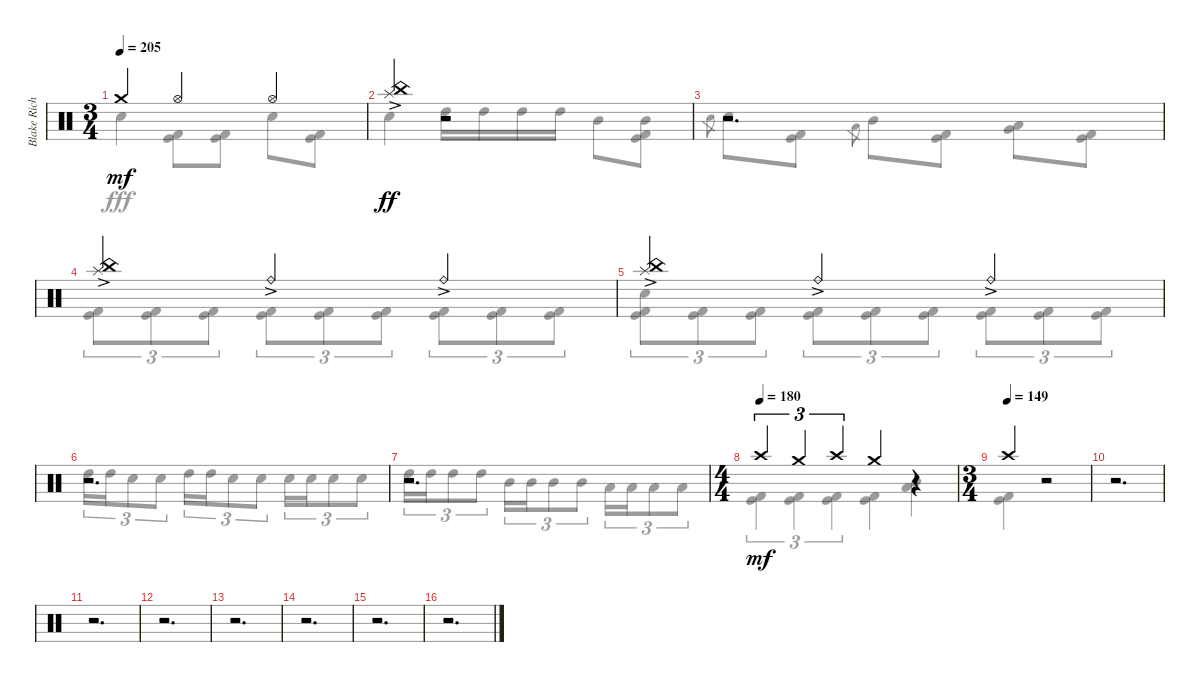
\track ("Blake Richardson Drums" "Blake Rich") {instrument percussion}
\staff {score}
\articulation defaults
\voice
\ts (3 4)
\tempo 205
\clef neutral
\ks c "Crash medium (hit)".4{dy mf} "Hi-Hat (open)".4 "Hi-Hat (open)".4
|
("Splash (hit)"{ac} "China (hit)").4{dy ff} r.2 |
r.2{d} |
("Splash (hit)"{ac} "China (hit)").4 "Ride (bell)"{ac}.4 "Ride (bell)"{ac}.4 |
("Splash (hit)"{ac} "China (hit)").4 "Ride (bell)"{ac}.4 "Ride (bell)"{ac}.4 |
r.2{d} |
r.2{d} |
\ts (4 4)
\tempo (180)
"Crash high (hit)".4{tu (3 2) dy mf} "Crash medium (hit)".4{tu (3 2)} "Crash high (hit)".4{tu (3 2)} "Crash medium (hit)".4 r.4 |
\ts (3 4)
\tempo (149)
"Crash high (hit)".4 r.2 |
r.2{d} |
r.2{d} |
r.2{d} |
r.2{d} |
r.2{d} |
r.2{d} |
r.2{d}
\voice
\clef neutral
\ottava regular
\simile none
\ks c "Electric Snare (hit)".4{dy fff}
("Kick (hit)" "Kick (hit) 2").8 ("Kick (hit)" "Kick (hit) 2").8 "Electric Snare (hit)".8 ("Kick (hit)" "Kick (hit) 2").8 |
"Electric Snare (hit)".4 "High Tom (hit)".16 "High Tom (hit)".16 "High Tom (hit)".16 "High Tom (hit)".16 "Mid Tom (hit)".8 ("Mid Tom (hit)" "Kick (hit)" "Kick (hit) 2").8 |
"Electric Snare (hit)".8{gr} "Electric Snare (hit)".8 ("Kick (hit)" "Kick (hit) 2").8 "Low Tom (hit)".8{gr} "Mid Tom (hit)".8 ("Kick (hit)" "Kick (hit) 2").8 ("Low Tom (hit)" "Very Low Tom (hit)").8 ("Kick (hit)" "Kick (hit) 2").8 |
("Kick (hit)" "Kick (hit) 2").8{tu (3 2)} ("Kick (hit)" "Kick (hit) 2").8{tu (3 2)} ("Kick (hit)" "Kick (hit) 2").8{tu (3 2)} ("Kick (hit)" "Kick (hit) 2").8{tu (3 2)} ("Kick (hit)" "Kick (hit) 2").8{tu (3 2)} ("Kick (hit)" "Kick (hit) 2").8{tu (3 2)} ("Kick (hit)" "Kick (hit) 2").8{tu (3 2)} ("Kick (hit)" "Kick (hit) 2").8{tu (3 2)} ("Kick (hit)" "Kick (hit) 2").8{tu (3 2)} |
("Electric Snare (hit)" "Kick (hit)" "Kick (hit) 2").8{tu (3 2)} ("Kick (hit)" "Kick (hit) 2").8{tu (3 2)} ("Kick (hit)" "Kick (hit) 2").8{tu (3 2)} ("Kick (hit)" "Kick (hit) 2").8{tu (3 2)} ("Kick (hit)" "Kick (hit) 2").8{tu (3 2)} ("Kick (hit)" "Kick (hit) 2").8{tu (3 2)} ("Kick (hit)" "Kick (hit) 2").8{tu (3 2)} ("Kick (hit)" "Kick (hit) 2").8{tu (3 2)} ("Kick (hit)" "Kick (hit) 2").8{tu (3 2)} |
"High Tom (hit)".16{tu (3 2)} "High Tom (hit)".16{tu (3 2)} "Electric Snare (hit)".8{tu (3 2)} "Electric Snare (hit)".8{tu (3 2)} "High Tom (hit)".16{tu (3 2)} "High Tom (hit)".16{tu (3 2)} "Electric Snare (hit)".8{tu (3 2)} "Electric Snare (hit)".8{tu (3 2)} "Electric Snare (hit)".16{tu (3 2)} "Electric Snare (hit)".16{tu (3 2)} "Electric Snare (hit)".8{tu (3 2)} "Electric Snare (hit)".8{tu (3 2)} |
"High Tom (hit)".16{tu (3 2)} "High Tom (hit)".16{tu (3 2)} "High Tom (hit)".8{tu (3 2)} "High Tom (hit)".8{tu (3 2)} "Mid Tom (hit)".16{tu (3 2)} "Mid Tom (hit)".16{tu (3 2)} "Mid Tom (hit)".8{tu (3 2)} "Mid Tom (hit)".8{tu (3 2)} "Low Tom (hit)".16{tu (3 2)} "Low Tom (hit)".16{tu (3 2)} "Low Tom (hit)".8{tu (3 2)} "Low Tom (hit)".8{tu (3 2)} |
("Kick (hit)" "Kick (hit) 2").4{tu (3 2)} ("Kick (hit)" "Kick (hit) 2").4{tu (3 2)} ("Kick (hit)" "Kick (hit) 2").4{tu (3 2)} ("Kick (hit)" "Kick (hit) 2").4 ("Mid Tom (hit)" "Low Tom (hit)").4 |
("Kick (hit)" "Kick (hit) 2").4 r.2 |
r.2{d} |
r.2{d} |
r.2{d} |
r.2{d} |
r.2{d} |
r.2{d} |
r.2{d}
